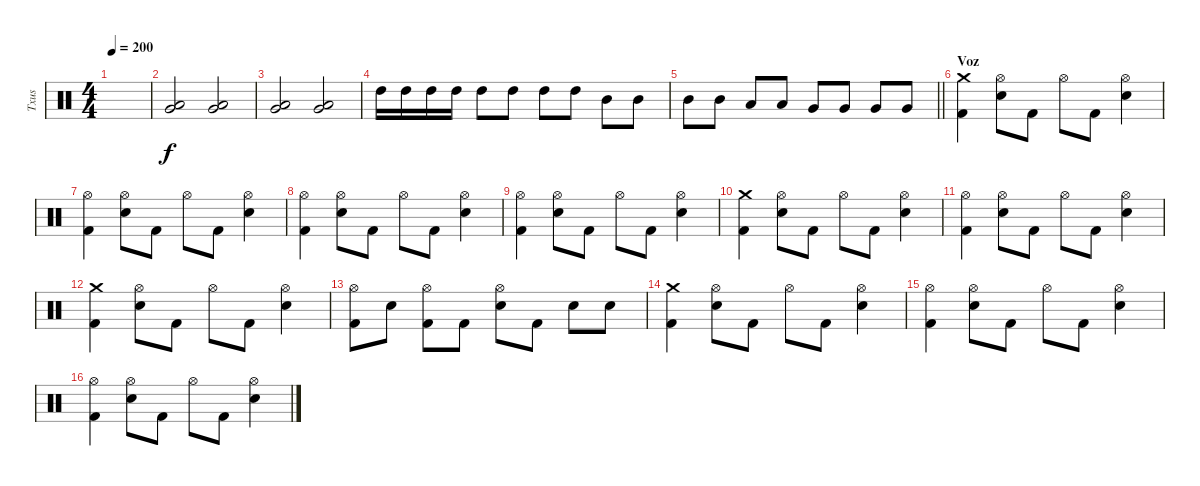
\track ("Txus" "Txus") {instrument percussion}
\staff {score}
\articulation defaults
\ts (4 4)
\tempo 200
\clef neutral
\ks c
|
("Low Tom (hit)" "Very Low Tom (hit)").2{dy f} ("Low Tom (hit)" "Very Low Tom (hit)").2 |
("Low Tom (hit)" "Very Low Tom (hit)").2 ("Low Tom (hit)" "Very Low Tom (hit)").2 |
"High Tom (hit)".16 "High Tom (hit)".16 "High Tom (hit)".16 "High Tom (hit)".16 "High Tom (hit)".8 "High Tom (hit)".8 "High Tom (hit)".8 "High Tom (hit)".8 "Mid Tom (hit)".8 "Mid Tom (hit)".8 |
\barLineRight lightlight "Mid Tom (hit)".8 "Mid Tom (hit)".8 "Low Tom (hit)".8 "Low Tom (hit)".8 "Very Low Tom (hit)".8 "Very Low Tom (hit)".8 "Very Low Tom (hit)".8 "Very Low Tom (hit)".8
|
\section ("" "Voz")
("Crash medium (hit)" "Kick (hit) 2").4 ("Hi-Hat (open)" "Snare (hit) 2").8 "Kick (hit) 2".8 "Hi-Hat (open)".8 "Kick (hit) 2".8 ("Hi-Hat (open)" "Snare (hit) 2").4 |
("Hi-Hat (open)" "Kick (hit) 2").4 ("Hi-Hat (open)" "Snare (hit) 2").8 "Kick (hit) 2".8 "Hi-Hat (open)".8 "Kick (hit) 2".8 ("Hi-Hat (open)" "Snare (hit) 2").4 |
("Hi-Hat (open)" "Kick (hit) 2").4 ("Hi-Hat (open)" "Snare (hit) 2").8 "Kick (hit) 2".8 "Hi-Hat (open)".8 "Kick (hit) 2".8 ("Hi-Hat (open)" "Snare (hit) 2").4 |
("Hi-Hat (open)" "Kick (hit) 2").4 ("Hi-Hat (open)" "Snare (hit) 2").8 "Kick (hit) 2".8 "Hi-Hat (open)".8 "Kick (hit) 2".8 ("Hi-Hat (open)" "Snare (hit) 2").4 |
("Crash medium (hit)" "Kick (hit) 2").4 ("Hi-Hat (open)" "Snare (hit) 2").8 "Kick (hit) 2".8 "Hi-Hat (open)".8 "Kick (hit) 2".8 ("Hi-Hat (open)" "Snare (hit) 2").4 |
("Hi-Hat (open)" "Kick (hit) 2").4 ("Hi-Hat (open)" "Snare (hit) 2").8 "Kick (hit) 2".8 "Hi-Hat (open)".8 "Kick (hit) 2".8 ("Hi-Hat (open)" "Snare (hit) 2").4 |
("Crash medium (hit)" "Kick (hit) 2").4 ("Hi-Hat (open)" "Snare (hit) 2").8 "Kick (hit) 2".8 "Hi-Hat (open)".8 "Kick (hit) 2".8 ("Hi-Hat (open)" "Snare (hit) 2").4 |
("Hi-Hat (open)" "Kick (hit) 2").8 "Snare (hit) 2".8 ("Hi-Hat (open)" "Kick (hit) 2").8 "Kick (hit) 2".8 ("Hi-Hat (open)" "Snare (hit) 2").8 "Kick (hit) 2".8 "Snare (hit) 2".8 "Snare (hit) 2".8 |
("Crash medium (hit)" "Kick (hit) 2").4 ("Hi-Hat (open)" "Snare (hit) 2").8 "Kick (hit) 2".8 "Hi-Hat (open)".8 "Kick (hit) 2".8 ("Hi-Hat (open)" "Snare (hit) 2").4 |
("Hi-Hat (open)" "Kick (hit) 2").4 ("Hi-Hat (open)" "Snare (hit) 2").8 "Kick (hit) 2".8 "Hi-Hat (open)".8 "Kick (hit) 2".8 ("Hi-Hat (open)" "Snare (hit) 2").4 |
("Hi-Hat (open)" "Kick (hit) 2").4 ("Hi-Hat (open)" "Snare (hit) 2").8 "Kick (hit) 2".8 "Hi-Hat (open)".8 "Kick (hit) 2".8 ("Hi-Hat (open)" "Snare (hit) 2").4
